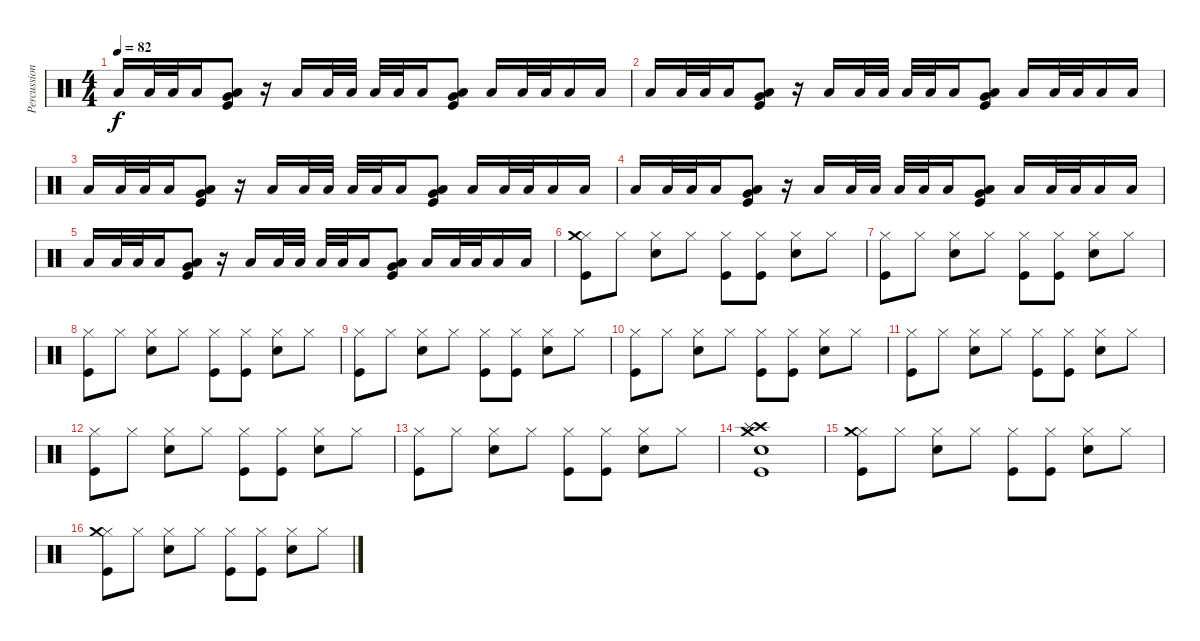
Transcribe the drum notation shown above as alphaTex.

\track ("Percussion" "Percussion") {instrument percussion}
\staff {score}
\articulation defaults
\ts (4 4)
\tempo 82
\clef neutral
\ks c "Low Tom (hit)".16{dy f} "Low Tom (hit)".32 "Low Tom (hit)".32 "Low Tom (hit)".16
("Very Low Tom (hit)" "Low Tom (hit)" "Kick (hit)").8 r.16 "Low Tom (hit)".16 "Low Tom (hit)".32 "Low Tom (hit)".32 "Low Tom (hit)".32 "Low Tom (hit)".32 "Low Tom (hit)".16 ("Very Low Tom (hit)" "Low Tom (hit)" "Kick (hit)").8 "Low Tom (hit)".16 "Low Tom (hit)".32 "Low Tom (hit)".32 "Low Tom (hit)".16 "Low Tom (hit)".16 |
"Low Tom (hit)".16 "Low Tom (hit)".32 "Low Tom (hit)".32 "Low Tom (hit)".16 ("Very Low Tom (hit)" "Low Tom (hit)" "Kick (hit)").8 r.16 "Low Tom (hit)".16 "Low Tom (hit)".32 "Low Tom (hit)".32 "Low Tom (hit)".32 "Low Tom (hit)".32 "Low Tom (hit)".16 ("Very Low Tom (hit)" "Low Tom (hit)" "Kick (hit)").8 "Low Tom (hit)".16 "Low Tom (hit)".32 "Low Tom (hit)".32 "Low Tom (hit)".16 "Low Tom (hit)".16 |
"Low Tom (hit)".16 "Low Tom (hit)".32 "Low Tom (hit)".32 "Low Tom (hit)".16 ("Very Low Tom (hit)" "Low Tom (hit)" "Kick (hit)").8 r.16 "Low Tom (hit)".16 "Low Tom (hit)".32 "Low Tom (hit)".32 "Low Tom (hit)".32 "Low Tom (hit)".32 "Low Tom (hit)".16 ("Very Low Tom (hit)" "Low Tom (hit)" "Kick (hit)").8 "Low Tom (hit)".16 "Low Tom (hit)".32 "Low Tom (hit)".32 "Low Tom (hit)".16 "Low Tom (hit)".16 |
"Low Tom (hit)".16 "Low Tom (hit)".32 "Low Tom (hit)".32 "Low Tom (hit)".16 ("Very Low Tom (hit)" "Low Tom (hit)" "Kick (hit)").8 r.16 "Low Tom (hit)".16 "Low Tom (hit)".32 "Low Tom (hit)".32 "Low Tom (hit)".32 "Low Tom (hit)".32 "Low Tom (hit)".16 ("Very Low Tom (hit)" "Low Tom (hit)" "Kick (hit)").8 "Low Tom (hit)".16 "Low Tom (hit)".32 "Low Tom (hit)".32 "Low Tom (hit)".16 "Low Tom (hit)".16 |
"Low Tom (hit)".16 "Low Tom (hit)".32 "Low Tom (hit)".32 "Low Tom (hit)".16 ("Very Low Tom (hit)" "Low Tom (hit)" "Kick (hit)").8 r.16 "Low Tom (hit)".16 "Low Tom (hit)".32 "Low Tom (hit)".32 "Low Tom (hit)".32 "Low Tom (hit)".32 "Low Tom (hit)".16 ("Very Low Tom (hit)" "Low Tom (hit)" "Kick (hit)").8 "Low Tom (hit)".16 "Low Tom (hit)".32 "Low Tom (hit)".32 "Low Tom (hit)".16 "Low Tom (hit)".16 |
("Hi-Hat (closed)" "Crash medium (hit)" "Kick (hit)").8 "Hi-Hat (closed)".8 ("Hi-Hat (closed)" "Snare (hit) 2").8 "Hi-Hat (closed)".8 ("Hi-Hat (closed)" "Kick (hit)").8 ("Hi-Hat (closed)" "Kick (hit)").8 ("Hi-Hat (closed)" "Snare (hit) 2").8 "Hi-Hat (closed)".8 |
("Hi-Hat (closed)" "Kick (hit)").8 "Hi-Hat (closed)".8 ("Hi-Hat (closed)" "Snare (hit) 2").8 "Hi-Hat (closed)".8 ("Hi-Hat (closed)" "Kick (hit)").8 ("Hi-Hat (closed)" "Kick (hit)").8 ("Hi-Hat (closed)" "Snare (hit) 2").8 "Hi-Hat (closed)".8 |
("Hi-Hat (closed)" "Kick (hit)").8 "Hi-Hat (closed)".8 ("Hi-Hat (closed)" "Snare (hit) 2").8 "Hi-Hat (closed)".8 ("Hi-Hat (closed)" "Kick (hit)").8 ("Hi-Hat (closed)" "Kick (hit)").8 ("Hi-Hat (closed)" "Snare (hit) 2").8 "Hi-Hat (closed)".8 |
("Hi-Hat (closed)" "Kick (hit)").8 "Hi-Hat (closed)".8 ("Hi-Hat (closed)" "Snare (hit) 2").8 "Hi-Hat (closed)".8 ("Hi-Hat (closed)" "Kick (hit)").8 ("Hi-Hat (closed)" "Kick (hit)").8 ("Hi-Hat (closed)" "Snare (hit) 2").8 "Hi-Hat (closed)".8 |
("Hi-Hat (closed)" "Kick (hit)").8 "Hi-Hat (closed)".8 ("Hi-Hat (closed)" "Snare (hit) 2").8 "Hi-Hat (closed)".8 ("Hi-Hat (closed)" "Kick (hit)").8 ("Hi-Hat (closed)" "Kick (hit)").8 ("Hi-Hat (closed)" "Snare (hit) 2").8 "Hi-Hat (closed)".8 |
("Hi-Hat (closed)" "Kick (hit)").8 "Hi-Hat (closed)".8 ("Hi-Hat (closed)" "Snare (hit) 2").8 "Hi-Hat (closed)".8 ("Hi-Hat (closed)" "Kick (hit)").8 ("Hi-Hat (closed)" "Kick (hit)").8 ("Hi-Hat (closed)" "Snare (hit) 2").8 "Hi-Hat (closed)".8 |
("Hi-Hat (closed)" "Kick (hit)").8 "Hi-Hat (closed)".8 ("Hi-Hat (closed)" "Snare (hit) 2").8 "Hi-Hat (closed)".8 ("Hi-Hat (closed)" "Kick (hit)").8 ("Hi-Hat (closed)" "Kick (hit)").8 ("Hi-Hat (closed)" "Snare (hit) 2").8 "Hi-Hat (closed)".8 |
("Hi-Hat (closed)" "Kick (hit)").8 "Hi-Hat (closed)".8 ("Hi-Hat (closed)" "Snare (hit) 2").8 "Hi-Hat (closed)".8 ("Hi-Hat (closed)" "Kick (hit)").8 ("Hi-Hat (closed)" "Kick (hit)").8 ("Hi-Hat (closed)" "Snare (hit) 2").8 "Hi-Hat (closed)".8 |
("Crash high (hit)" "Crash medium (hit)" "Snare (hit) 2" "Splash (hit)" "Kick (hit)").1 |
("Hi-Hat (closed)" "Crash medium (hit)" "Kick (hit)").8 "Hi-Hat (closed)".8 ("Hi-Hat (closed)" "Snare (hit) 2").8 "Hi-Hat (closed)".8 ("Hi-Hat (closed)" "Kick (hit)").8 ("Hi-Hat (closed)" "Kick (hit)").8 ("Hi-Hat (closed)" "Snare (hit) 2").8 "Hi-Hat (closed)".8 |
("Hi-Hat (closed)" "Crash medium (hit)" "Kick (hit)").8 "Hi-Hat (closed)".8 ("Hi-Hat (closed)" "Snare (hit) 2").8 "Hi-Hat (closed)".8 ("Hi-Hat (closed)" "Kick (hit)").8 ("Hi-Hat (closed)" "Kick (hit)").8 ("Hi-Hat (closed)" "Snare (hit) 2").8 "Hi-Hat (closed)".8
